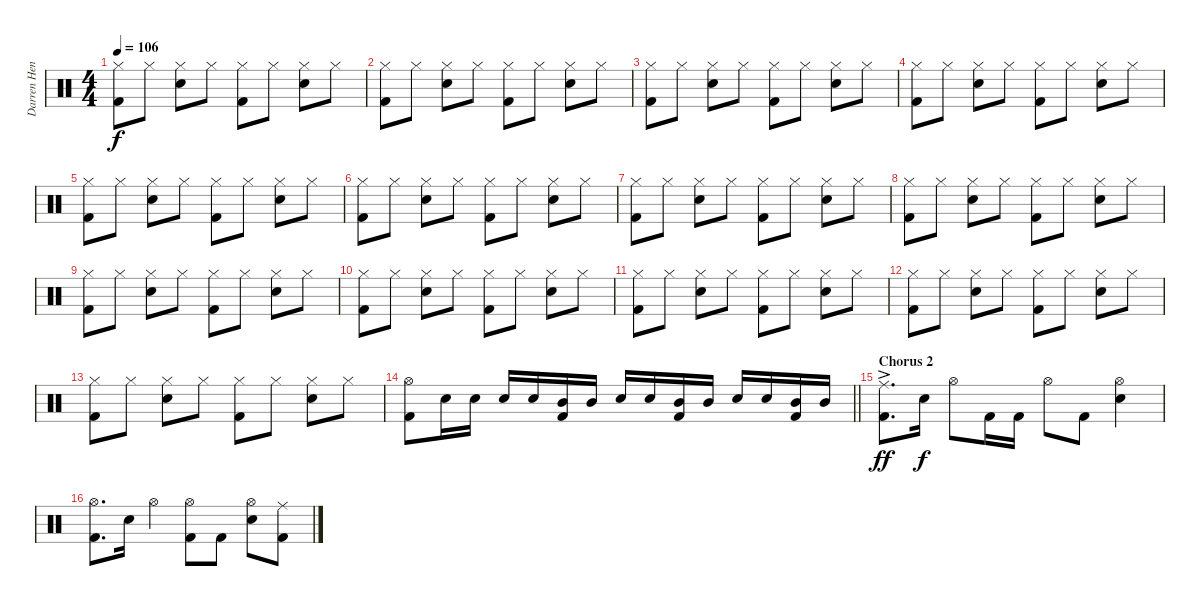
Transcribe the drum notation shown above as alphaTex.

\track ("Darren Henley [Drums]" "Darren Hen") {instrument percussion}
\staff {score}
\articulation defaults
\ts (4 4)
\tempo 106
\clef neutral
\ks c
("Hi-Hat (closed)" "Kick (hit) 2").8{dy f} "Hi-Hat (closed)".8 ("Hi-Hat (closed)" "Snare (hit) 2").8 "Hi-Hat (closed)".8 ("Hi-Hat (closed)" "Kick (hit) 2").8 "Hi-Hat (closed)".8 ("Hi-Hat (closed)" "Snare (hit) 2").8 "Hi-Hat (closed)".8 |
("Hi-Hat (closed)" "Kick (hit) 2").8 "Hi-Hat (closed)".8 ("Hi-Hat (closed)" "Snare (hit) 2").8 "Hi-Hat (closed)".8 ("Hi-Hat (closed)" "Kick (hit) 2").8 "Hi-Hat (closed)".8 ("Hi-Hat (closed)" "Snare (hit) 2").8 "Hi-Hat (closed)".8 |
("Hi-Hat (closed)" "Kick (hit) 2").8 "Hi-Hat (closed)".8 ("Hi-Hat (closed)" "Snare (hit) 2").8 "Hi-Hat (closed)".8 ("Hi-Hat (closed)" "Kick (hit) 2").8 "Hi-Hat (closed)".8 ("Hi-Hat (closed)" "Snare (hit) 2").8 "Hi-Hat (closed)".8 |
("Hi-Hat (closed)" "Kick (hit) 2").8 "Hi-Hat (closed)".8 ("Hi-Hat (closed)" "Snare (hit) 2").8 "Hi-Hat (closed)".8 ("Hi-Hat (closed)" "Kick (hit) 2").8 "Hi-Hat (closed)".8 ("Hi-Hat (closed)" "Snare (hit) 2").8 "Hi-Hat (closed)".8 |
("Hi-Hat (closed)" "Kick (hit) 2").8 "Hi-Hat (closed)".8 ("Hi-Hat (closed)" "Snare (hit) 2").8 "Hi-Hat (closed)".8 ("Hi-Hat (closed)" "Kick (hit) 2").8 "Hi-Hat (closed)".8 ("Hi-Hat (closed)" "Snare (hit) 2").8 "Hi-Hat (closed)".8 |
("Hi-Hat (closed)" "Kick (hit) 2").8 "Hi-Hat (closed)".8 ("Hi-Hat (closed)" "Snare (hit) 2").8 "Hi-Hat (closed)".8 ("Hi-Hat (closed)" "Kick (hit) 2").8 "Hi-Hat (closed)".8 ("Hi-Hat (closed)" "Snare (hit) 2").8 "Hi-Hat (closed)".8 |
("Hi-Hat (closed)" "Kick (hit) 2").8 "Hi-Hat (closed)".8 ("Hi-Hat (closed)" "Snare (hit) 2").8 "Hi-Hat (closed)".8 ("Hi-Hat (closed)" "Kick (hit) 2").8 "Hi-Hat (closed)".8 ("Hi-Hat (closed)" "Snare (hit) 2").8 "Hi-Hat (closed)".8 |
("Hi-Hat (closed)" "Kick (hit) 2").8 "Hi-Hat (closed)".8 ("Hi-Hat (closed)" "Snare (hit) 2").8 "Hi-Hat (closed)".8 ("Hi-Hat (closed)" "Kick (hit) 2").8 "Hi-Hat (closed)".8 ("Hi-Hat (closed)" "Snare (hit) 2").8 "Hi-Hat (closed)".8 |
("Hi-Hat (closed)" "Kick (hit) 2").8 "Hi-Hat (closed)".8 ("Hi-Hat (closed)" "Snare (hit) 2").8 "Hi-Hat (closed)".8 ("Hi-Hat (closed)" "Kick (hit) 2").8 "Hi-Hat (closed)".8 ("Hi-Hat (closed)" "Snare (hit) 2").8 "Hi-Hat (closed)".8 |
("Hi-Hat (closed)" "Kick (hit) 2").8 "Hi-Hat (closed)".8 ("Hi-Hat (closed)" "Snare (hit) 2").8 "Hi-Hat (closed)".8 ("Hi-Hat (closed)" "Kick (hit) 2").8 "Hi-Hat (closed)".8 ("Hi-Hat (closed)" "Snare (hit) 2").8 "Hi-Hat (closed)".8 |
("Hi-Hat (closed)" "Kick (hit) 2").8 "Hi-Hat (closed)".8 ("Hi-Hat (closed)" "Snare (hit) 2").8 "Hi-Hat (closed)".8 ("Hi-Hat (closed)" "Kick (hit) 2").8 "Hi-Hat (closed)".8 ("Hi-Hat (closed)" "Snare (hit) 2").8 "Hi-Hat (closed)".8 |
("Hi-Hat (closed)" "Kick (hit) 2").8 "Hi-Hat (closed)".8 ("Hi-Hat (closed)" "Snare (hit) 2").8 "Hi-Hat (closed)".8 ("Hi-Hat (closed)" "Kick (hit) 2").8 "Hi-Hat (closed)".8 ("Hi-Hat (closed)" "Snare (hit) 2").8 "Hi-Hat (closed)".8 |
("Hi-Hat (closed)" "Kick (hit) 2").8 "Hi-Hat (closed)".8 ("Hi-Hat (closed)" "Snare (hit) 2").8 "Hi-Hat (closed)".8 ("Hi-Hat (closed)" "Kick (hit) 2").8 "Hi-Hat (closed)".8 ("Hi-Hat (closed)" "Snare (hit) 2").8 "Hi-Hat (closed)".8 |
\barLineRight lightlight
("Hi-Hat (open)" "Kick (hit) 2").8 "Snare (hit) 2".16 "Snare (hit) 2".16 "Snare (hit) 2".16 "Snare (hit) 2".16 ("Mid Tom (hit)" "Kick (hit) 2").16 "Mid Tom (hit)".16 "Snare (hit) 2".16 "Snare (hit) 2".16 ("Mid Tom (hit)" "Kick (hit) 2").16 "Mid Tom (hit)".16 "Snare (hit) 2".16 "Snare (hit) 2".16 ("Mid Tom (hit)" "Kick (hit) 2").16 "Mid Tom (hit)".16 |
\section ("" "Chorus 2")
("Ride (middle)"{ac} "Kick (hit) 2").8{d dy ff} "Snare (hit) 2".16{dy f} "Hi-Hat (open)".8 "Kick (hit) 2".16 "Kick (hit) 2".16 "Hi-Hat (open)".8 "Kick (hit) 2".8 ("Hi-Hat (open)" "Snare (hit) 2").4 |
("Hi-Hat (open)" "Kick (hit) 2").8{d} "Snare (hit) 2".16 "Hi-Hat (open)".4 ("Hi-Hat (open)" "Kick (hit) 2").8 "Kick (hit) 2".8 ("Hi-Hat (open)" "Snare (hit) 2").8 ("Ride (middle)" "Kick (hit) 2").8
